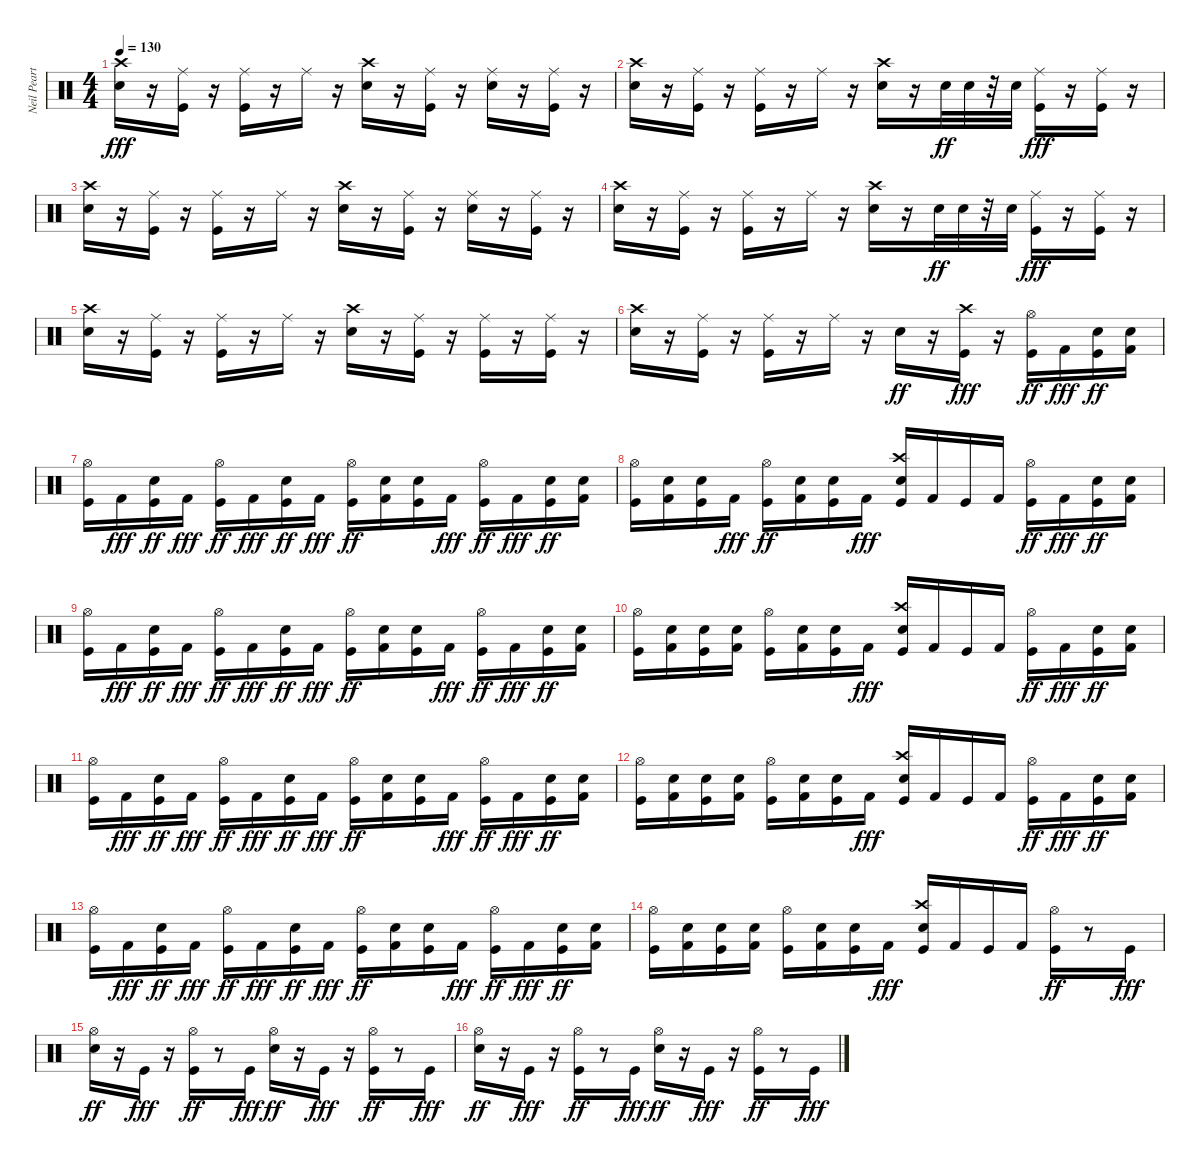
\track ("Neil Peart" "Neil Peart") {instrument percussion}
\staff {score}
\articulation defaults
\ts (4 4)
\tempo 130
\clef neutral
\ks c
("Snare (hit) 2" "Crash high (hit)").16{dy fff} r.16 ("Kick (hit)" "Ride (middle)").16 r.16 ("Kick (hit)" "Ride (middle)").16 r.16 "Ride (middle)".16 r.16 ("Snare (hit) 2" "Crash high (hit)").16 r.16 ("Kick (hit)" "Ride (middle)").16 r.16 ("Snare (hit) 2" "Ride (middle)").16 r.16 ("Kick (hit)" "Ride (middle)").16 r.16 |
("Snare (hit) 2" "Crash high (hit)").16 r.16 ("Kick (hit)" "Ride (middle)").16 r.16 ("Kick (hit)" "Ride (middle)").16 r.16 "Ride (middle)".16 r.16 ("Snare (hit) 2" "Crash high (hit)").16 r.16 "Snare (hit) 2".32{dy ff} "Snare (hit) 2".32 r.32 "Snare (hit) 2".32 ("Kick (hit)" "Ride (middle)").16{dy fff} r.16 ("Kick (hit)" "Ride (middle)").16 r.16 |
("Snare (hit) 2" "Crash high (hit)").16 r.16 ("Kick (hit)" "Ride (middle)").16 r.16 ("Kick (hit)" "Ride (middle)").16 r.16 "Ride (middle)".16 r.16 ("Snare (hit) 2" "Crash high (hit)").16 r.16 ("Kick (hit)" "Ride (middle)").16 r.16 ("Snare (hit) 2" "Ride (middle)").16 r.16 ("Kick (hit)" "Ride (middle)").16 r.16 |
("Snare (hit) 2" "Crash high (hit)").16 r.16 ("Kick (hit)" "Ride (middle)").16 r.16 ("Kick (hit)" "Ride (middle)").16 r.16 "Ride (middle)".16 r.16 ("Snare (hit) 2" "Crash high (hit)").16 r.16 "Snare (hit) 2".32{dy ff} "Snare (hit) 2".32 r.32 "Snare (hit) 2".32 ("Kick (hit)" "Ride (middle)").16{dy fff} r.16 ("Kick (hit)" "Ride (middle)").16 r.16 |
("Snare (hit) 2" "Crash high (hit)").16 r.16 ("Kick (hit)" "Ride (middle)").16 r.16 ("Kick (hit)" "Ride (middle)").16 r.16 "Ride (middle)".16 r.16 ("Snare (hit) 2" "Crash high (hit)").16 r.16 ("Kick (hit)" "Ride (middle)").16 r.16 ("Kick (hit)" "Ride (middle)").16 r.16 ("Kick (hit)" "Ride (middle)").16 r.16 |
("Snare (hit) 2" "Crash high (hit)").16 r.16 ("Kick (hit)" "Ride (middle)").16 r.16 ("Kick (hit)" "Ride (middle)").16 r.16 "Ride (middle)".16 r.16 "Snare (hit) 2".16{dy ff} r.16 ("Kick (hit)" "Crash high (hit)").16{dy fff} r.16 ("Kick (hit)" "Hi-Hat (open)").16{dy ff} "Kick (hit) 2".16{dy fff} ("Kick (hit)" "Snare (hit) 2").16{dy ff} ("Kick (hit) 2" "Snare (hit) 2").16 |
("Kick (hit)" "Hi-Hat (open)").16 "Kick (hit) 2".16{dy fff} ("Kick (hit)" "Snare (hit) 2").16{dy ff} "Kick (hit) 2".16{dy fff} ("Kick (hit)" "Hi-Hat (open)").16{dy ff} "Kick (hit) 2".16{dy fff} ("Kick (hit)" "Snare (hit) 2").16{dy ff} "Kick (hit) 2".16{dy fff} ("Kick (hit)" "Hi-Hat (open)").16{dy ff} ("Kick (hit) 2" "Snare (hit) 2").16 ("Kick (hit)" "Snare (hit) 2").16 "Kick (hit) 2".16{dy fff} ("Kick (hit)" "Hi-Hat (open)").16{dy ff} "Kick (hit) 2".16{dy fff} ("Kick (hit)" "Snare (hit) 2").16{dy ff} ("Kick (hit) 2" "Snare (hit) 2").16 |
("Kick (hit)" "Hi-Hat (open)").16 ("Kick (hit) 2" "Snare (hit) 2").16 ("Kick (hit)" "Snare (hit) 2").16 "Kick (hit) 2".16{dy fff} ("Kick (hit)" "Hi-Hat (open)").16{dy ff} ("Kick (hit) 2" "Snare (hit) 2").16 ("Kick (hit)" "Snare (hit) 2").16 "Kick (hit) 2".16{dy fff} ("Kick (hit)" "Snare (hit) 2" "Crash high (hit)").16 "Kick (hit) 2".16 "Kick (hit)".16 "Kick (hit) 2".16 ("Kick (hit)" "Hi-Hat (open)").16{dy ff} "Kick (hit) 2".16{dy fff} ("Kick (hit)" "Snare (hit) 2").16{dy ff} ("Kick (hit) 2" "Snare (hit) 2").16 |
("Kick (hit)" "Hi-Hat (open)").16 "Kick (hit) 2".16{dy fff} ("Kick (hit)" "Snare (hit) 2").16{dy ff} "Kick (hit) 2".16{dy fff} ("Kick (hit)" "Hi-Hat (open)").16{dy ff} "Kick (hit) 2".16{dy fff} ("Kick (hit)" "Snare (hit) 2").16{dy ff} "Kick (hit) 2".16{dy fff} ("Kick (hit)" "Hi-Hat (open)").16{dy ff} ("Kick (hit) 2" "Snare (hit) 2").16 ("Kick (hit)" "Snare (hit) 2").16 "Kick (hit) 2".16{dy fff} ("Kick (hit)" "Hi-Hat (open)").16{dy ff} "Kick (hit) 2".16{dy fff} ("Kick (hit)" "Snare (hit) 2").16{dy ff} ("Kick (hit) 2" "Snare (hit) 2").16 |
("Kick (hit)" "Hi-Hat (open)").16 ("Kick (hit) 2" "Snare (hit) 2").16 ("Kick (hit)" "Snare (hit) 2").16 ("Kick (hit) 2" "Snare (hit) 2").16 ("Kick (hit)" "Hi-Hat (open)").16 ("Kick (hit) 2" "Snare (hit) 2").16 ("Kick (hit)" "Snare (hit) 2").16 "Kick (hit) 2".16{dy fff} ("Kick (hit)" "Snare (hit) 2" "Crash high (hit)").16 "Kick (hit) 2".16 "Kick (hit)".16 "Kick (hit) 2".16 ("Kick (hit)" "Hi-Hat (open)").16{dy ff} "Kick (hit) 2".16{dy fff} ("Kick (hit)" "Snare (hit) 2").16{dy ff} ("Kick (hit) 2" "Snare (hit) 2").16 |
("Kick (hit)" "Hi-Hat (open)").16 "Kick (hit) 2".16{dy fff} ("Kick (hit)" "Snare (hit) 2").16{dy ff} "Kick (hit) 2".16{dy fff} ("Kick (hit)" "Hi-Hat (open)").16{dy ff} "Kick (hit) 2".16{dy fff} ("Kick (hit)" "Snare (hit) 2").16{dy ff} "Kick (hit) 2".16{dy fff} ("Kick (hit)" "Hi-Hat (open)").16{dy ff} ("Kick (hit) 2" "Snare (hit) 2").16 ("Kick (hit)" "Snare (hit) 2").16 "Kick (hit) 2".16{dy fff} ("Kick (hit)" "Hi-Hat (open)").16{dy ff} "Kick (hit) 2".16{dy fff} ("Kick (hit)" "Snare (hit) 2").16{dy ff} ("Kick (hit) 2" "Snare (hit) 2").16 |
("Kick (hit)" "Hi-Hat (open)").16 ("Kick (hit) 2" "Snare (hit) 2").16 ("Kick (hit)" "Snare (hit) 2").16 ("Kick (hit) 2" "Snare (hit) 2").16 ("Kick (hit)" "Hi-Hat (open)").16 ("Kick (hit) 2" "Snare (hit) 2").16 ("Kick (hit)" "Snare (hit) 2").16 "Kick (hit) 2".16{dy fff} ("Kick (hit)" "Snare (hit) 2" "Crash high (hit)").16 "Kick (hit) 2".16 "Kick (hit)".16 "Kick (hit) 2".16 ("Kick (hit)" "Hi-Hat (open)").16{dy ff} "Kick (hit) 2".16{dy fff} ("Kick (hit)" "Snare (hit) 2").16{dy ff} ("Kick (hit) 2" "Snare (hit) 2").16 |
("Kick (hit)" "Hi-Hat (open)").16 "Kick (hit) 2".16{dy fff} ("Kick (hit)" "Snare (hit) 2").16{dy ff} "Kick (hit) 2".16{dy fff} ("Kick (hit)" "Hi-Hat (open)").16{dy ff} "Kick (hit) 2".16{dy fff} ("Kick (hit)" "Snare (hit) 2").16{dy ff} "Kick (hit) 2".16{dy fff} ("Kick (hit)" "Hi-Hat (open)").16{dy ff} ("Kick (hit) 2" "Snare (hit) 2").16 ("Kick (hit)" "Snare (hit) 2").16 "Kick (hit) 2".16{dy fff} ("Kick (hit)" "Hi-Hat (open)").16{dy ff} "Kick (hit) 2".16{dy fff} ("Kick (hit)" "Snare (hit) 2").16{dy ff} ("Kick (hit) 2" "Snare (hit) 2").16 |
("Kick (hit)" "Hi-Hat (open)").16 ("Kick (hit) 2" "Snare (hit) 2").16 ("Kick (hit)" "Snare (hit) 2").16 ("Kick (hit) 2" "Snare (hit) 2").16 ("Kick (hit)" "Hi-Hat (open)").16 ("Kick (hit) 2" "Snare (hit) 2").16 ("Kick (hit)" "Snare (hit) 2").16 "Kick (hit) 2".16{dy fff} ("Kick (hit)" "Snare (hit) 2" "Crash high (hit)").16 "Kick (hit) 2".16 "Kick (hit)".16 "Kick (hit) 2".16 ("Kick (hit)" "Hi-Hat (open)").16{dy ff} r.8 "Kick (hit)".16{dy fff} |
("Snare (hit) 2" "Hi-Hat (open)").16{dy ff} r.16 "Kick (hit)".16{dy fff} r.16 ("Kick (hit)" "Hi-Hat (open)").16{dy ff} r.8 "Kick (hit)".16{dy fff} ("Snare (hit) 2" "Hi-Hat (open)").16{dy ff} r.16 "Kick (hit)".16{dy fff} r.16 ("Kick (hit)" "Hi-Hat (open)").16{dy ff} r.8 "Kick (hit)".16{dy fff} |
("Snare (hit) 2" "Hi-Hat (open)").16{dy ff} r.16 "Kick (hit)".16{dy fff} r.16 ("Kick (hit)" "Hi-Hat (open)").16{dy ff} r.8 "Kick (hit)".16{dy fff} ("Snare (hit) 2" "Hi-Hat (open)").16{dy ff} r.16 "Kick (hit)".16{dy fff} r.16 ("Kick (hit)" "Hi-Hat (open)").16{dy ff} r.8 "Kick (hit)".16{dy fff}
